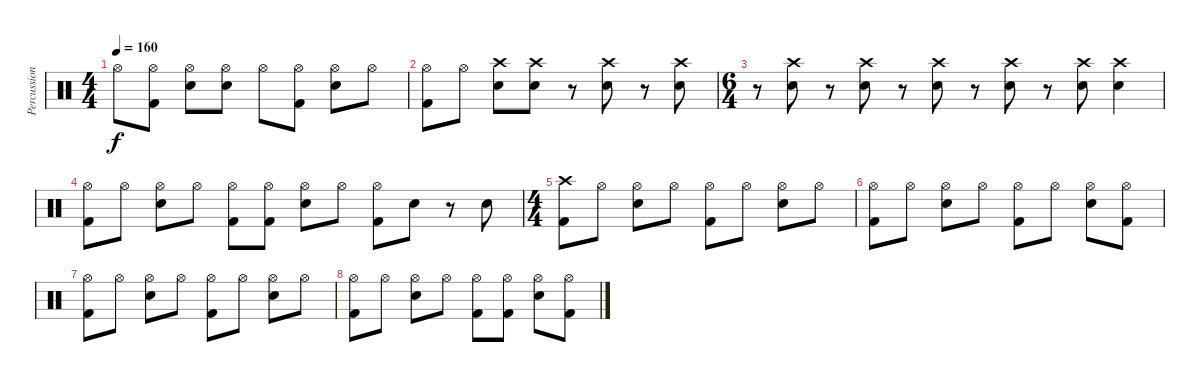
\track ("Percussion" "Percussion") {instrument percussion}
\staff {score}
\articulation defaults
\ts (4 4)
\tempo 160
\clef neutral
\ks c "Hi-Hat (open)".8{dy f}
("Hi-Hat (open)" "Kick (hit) 2").8 ("Hi-Hat (open)" "Snare (hit) 2").8 ("Hi-Hat (open)" "Snare (hit) 2").8 "Hi-Hat (open)".8 ("Hi-Hat (open)" "Kick (hit) 2").8 ("Hi-Hat (open)" "Snare (hit) 2").8 "Hi-Hat (open)".8 |
("Hi-Hat (open)" "Kick (hit) 2").8 "Hi-Hat (open)".8 ("Crash high (hit)" "Snare (hit) 2").8 ("Crash high (hit)" "Snare (hit) 2").8 r.8 ("Crash high (hit)" "Snare (hit) 2").8 r.8 ("Crash high (hit)" "Snare (hit) 2").8 |
\ts (6 4)
r.8 ("Crash high (hit)" "Snare (hit) 2").8 r.8 ("Crash high (hit)" "Snare (hit) 2").8 r.8 ("Crash high (hit)" "Snare (hit) 2").8 r.8 ("Crash high (hit)" "Snare (hit) 2").8 r.8 ("Crash high (hit)" "Snare (hit) 2").8 ("Crash high (hit)" "Snare (hit) 2").4 |
("Hi-Hat (open)" "Kick (hit) 2").8 "Hi-Hat (open)".8 ("Hi-Hat (open)" "Snare (hit) 2").8 "Hi-Hat (open)".8 ("Hi-Hat (open)" "Kick (hit) 2").8 ("Hi-Hat (open)" "Kick (hit) 2").8 ("Hi-Hat (open)" "Snare (hit) 2").8 "Hi-Hat (open)".8 ("Hi-Hat (open)" "Kick (hit) 2").8 "Snare (hit) 2".8 r.8 "Snare (hit) 2".8 |
\ts (4 4)
("Crash high (hit)" "Kick (hit) 2").8 "Hi-Hat (open)".8 ("Hi-Hat (open)" "Snare (hit) 2").8 "Hi-Hat (open)".8 ("Hi-Hat (open)" "Kick (hit) 2").8 "Hi-Hat (open)".8 ("Hi-Hat (open)" "Snare (hit) 2").8 "Hi-Hat (open)".8 |
("Hi-Hat (open)" "Kick (hit) 2").8 "Hi-Hat (open)".8 ("Hi-Hat (open)" "Snare (hit) 2").8 "Hi-Hat (open)".8 ("Hi-Hat (open)" "Kick (hit) 2").8 "Hi-Hat (open)".8 ("Hi-Hat (open)" "Snare (hit) 2").8 ("Hi-Hat (open)" "Kick (hit) 2").8 |
("Hi-Hat (open)" "Kick (hit) 2").8 "Hi-Hat (open)".8 ("Hi-Hat (open)" "Snare (hit) 2").8 "Hi-Hat (open)".8 ("Hi-Hat (open)" "Kick (hit) 2").8 "Hi-Hat (open)".8 ("Hi-Hat (open)" "Snare (hit) 2").8 "Hi-Hat (open)".8 |
("Hi-Hat (open)" "Kick (hit) 2").8 "Hi-Hat (open)".8 ("Hi-Hat (open)" "Snare (hit) 2").8 "Hi-Hat (open)".8 ("Hi-Hat (open)" "Kick (hit) 2").8 ("Hi-Hat (open)" "Kick (hit) 2").8 ("Hi-Hat (open)" "Snare (hit) 2").8 ("Hi-Hat (open)" "Kick (hit) 2").8
